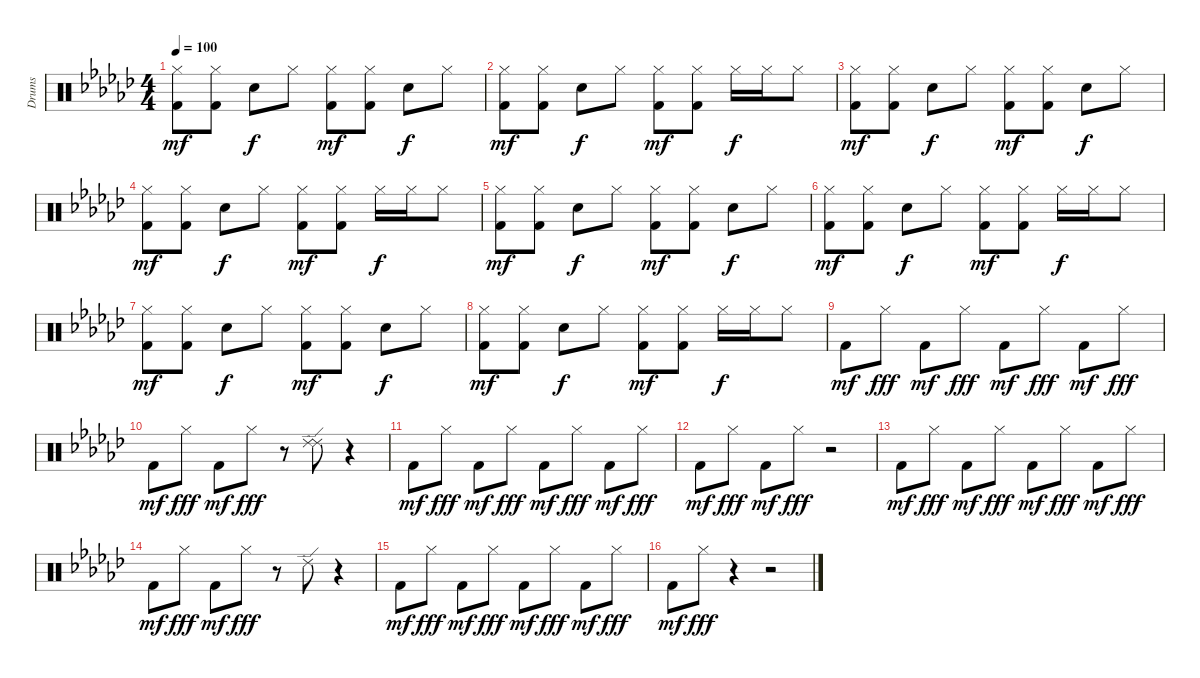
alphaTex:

\track ("Drums" "Drums") {instrument percussion}
\staff {score}
\articulation defaults
\ts (4 4)
\tempo 100
\clef neutral
\ks ebminor
("Hi-Hat (closed)" "Kick (hit) 2").8{dy mf} ("Hi-Hat (closed)" "Kick (hit) 2").8 "Snare (hit) 2".8{dy f} "Hi-Hat (closed)".8 ("Hi-Hat (closed)" "Kick (hit) 2").8{dy mf} ("Hi-Hat (closed)" "Kick (hit) 2").8 "Snare (hit) 2".8{dy f} "Hi-Hat (closed)".8 |
("Hi-Hat (closed)" "Kick (hit) 2").8{dy mf} ("Hi-Hat (closed)" "Kick (hit) 2").8 "Snare (hit) 2".8{dy f} "Hi-Hat (closed)".8 ("Hi-Hat (closed)" "Kick (hit) 2").8{dy mf} ("Hi-Hat (closed)" "Kick (hit) 2").8 "Hi-Hat (closed)".16{dy f} "Hi-Hat (closed)".16 "Hi-Hat (closed)".8 |
("Hi-Hat (closed)" "Kick (hit) 2").8{dy mf} ("Hi-Hat (closed)" "Kick (hit) 2").8 "Snare (hit) 2".8{dy f} "Hi-Hat (closed)".8 ("Hi-Hat (closed)" "Kick (hit) 2").8{dy mf} ("Hi-Hat (closed)" "Kick (hit) 2").8 "Snare (hit) 2".8{dy f} "Hi-Hat (closed)".8 |
("Hi-Hat (closed)" "Kick (hit) 2").8{dy mf} ("Hi-Hat (closed)" "Kick (hit) 2").8 "Snare (hit) 2".8{dy f} "Hi-Hat (closed)".8 ("Hi-Hat (closed)" "Kick (hit) 2").8{dy mf} ("Hi-Hat (closed)" "Kick (hit) 2").8 "Hi-Hat (closed)".16{dy f} "Hi-Hat (closed)".16 "Hi-Hat (closed)".8 |
("Hi-Hat (closed)" "Kick (hit) 2").8{dy mf} ("Hi-Hat (closed)" "Kick (hit) 2").8 "Snare (hit) 2".8{dy f} "Hi-Hat (closed)".8 ("Hi-Hat (closed)" "Kick (hit) 2").8{dy mf} ("Hi-Hat (closed)" "Kick (hit) 2").8 "Snare (hit) 2".8{dy f} "Hi-Hat (closed)".8 |
("Hi-Hat (closed)" "Kick (hit) 2").8{dy mf} ("Hi-Hat (closed)" "Kick (hit) 2").8 "Snare (hit) 2".8{dy f} "Hi-Hat (closed)".8 ("Hi-Hat (closed)" "Kick (hit) 2").8{dy mf} ("Hi-Hat (closed)" "Kick (hit) 2").8 "Hi-Hat (closed)".16{dy f} "Hi-Hat (closed)".16 "Hi-Hat (closed)".8 |
("Hi-Hat (closed)" "Kick (hit) 2").8{dy mf} ("Hi-Hat (closed)" "Kick (hit) 2").8 "Snare (hit) 2".8{dy f} "Hi-Hat (closed)".8 ("Hi-Hat (closed)" "Kick (hit) 2").8{dy mf} ("Hi-Hat (closed)" "Kick (hit) 2").8 "Snare (hit) 2".8{dy f} "Hi-Hat (closed)".8 |
("Hi-Hat (closed)" "Kick (hit) 2").8{dy mf} ("Hi-Hat (closed)" "Kick (hit) 2").8 "Snare (hit) 2".8{dy f} "Hi-Hat (closed)".8 ("Hi-Hat (closed)" "Kick (hit) 2").8{dy mf} ("Hi-Hat (closed)" "Kick (hit) 2").8 "Hi-Hat (closed)".16{dy f} "Hi-Hat (closed)".16 "Hi-Hat (closed)".8 |
"Kick (hit) 2".8{dy mf} "Hi-Hat (closed)".8{dy fff} "Kick (hit) 2".8{dy mf} "Hi-Hat (closed)".8{dy fff} "Kick (hit) 2".8{dy mf} "Hi-Hat (closed)".8{dy fff} "Kick (hit) 2".8{dy mf} "Hi-Hat (closed)".8{dy fff} |
"Kick (hit) 2".8{dy mf} "Hi-Hat (closed)".8{dy fff} "Kick (hit) 2".8{dy mf} "Hi-Hat (closed)".8{dy fff} r.8 ("Ride (edge) 2" "Ride (edge) 2").8 r.4 |
"Kick (hit) 2".8{dy mf} "Hi-Hat (closed)".8{dy fff} "Kick (hit) 2".8{dy mf} "Hi-Hat (closed)".8{dy fff} "Kick (hit) 2".8{dy mf} "Hi-Hat (closed)".8{dy fff} "Kick (hit) 2".8{dy mf} "Hi-Hat (closed)".8{dy fff} |
"Kick (hit) 2".8{dy mf} "Hi-Hat (closed)".8{dy fff} "Kick (hit) 2".8{dy mf} "Hi-Hat (closed)".8{dy fff} r.2 |
"Kick (hit) 2".8{dy mf} "Hi-Hat (closed)".8{dy fff} "Kick (hit) 2".8{dy mf} "Hi-Hat (closed)".8{dy fff} "Kick (hit) 2".8{dy mf} "Hi-Hat (closed)".8{dy fff} "Kick (hit) 2".8{dy mf} "Hi-Hat (closed)".8{dy fff} |
"Kick (hit) 2".8{dy mf} "Hi-Hat (closed)".8{dy fff} "Kick (hit) 2".8{dy mf} "Hi-Hat (closed)".8{dy fff} r.8 "Ride (edge) 2".8 r.4 |
"Kick (hit) 2".8{dy mf} "Hi-Hat (closed)".8{dy fff} "Kick (hit) 2".8{dy mf} "Hi-Hat (closed)".8{dy fff} "Kick (hit) 2".8{dy mf} "Hi-Hat (closed)".8{dy fff} "Kick (hit) 2".8{dy mf} "Hi-Hat (closed)".8{dy fff} |
"Kick (hit) 2".8{dy mf} "Hi-Hat (closed)".8{dy fff} r.4 r.2
